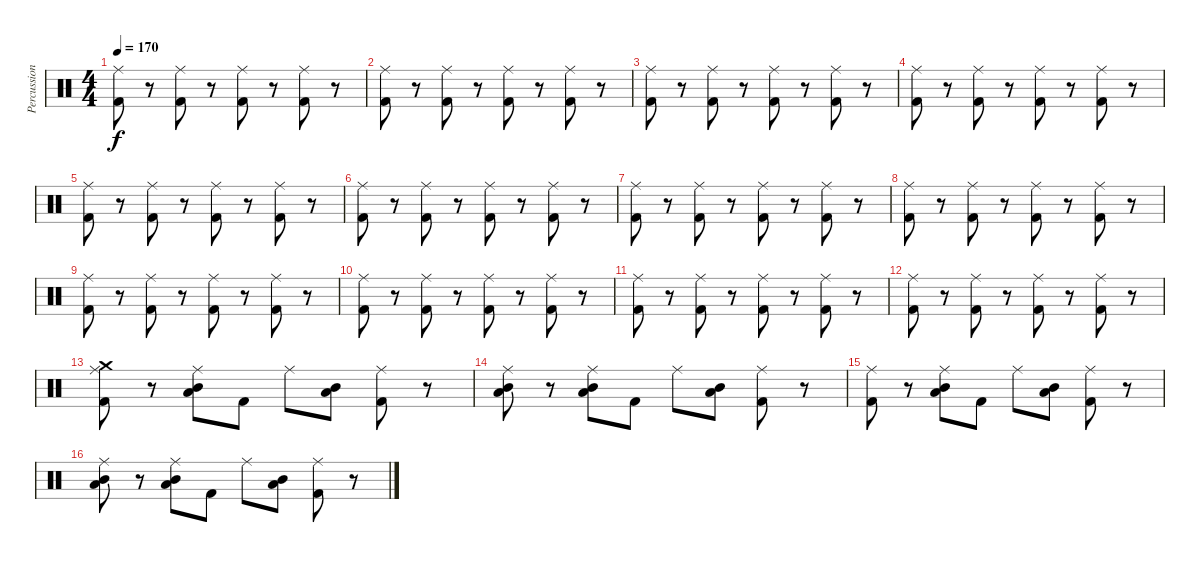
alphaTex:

\track ("Percussion" "Percussion") {instrument percussion}
\staff {score}
\articulation defaults
\ts (4 4)
\tempo 170
\clef neutral
\ks c
("Ride (middle)" "Kick (hit) 2").8{dy f} r.8 ("Ride (middle)" "Kick (hit) 2").8 r.8 ("Ride (middle)" "Kick (hit) 2").8 r.8 ("Ride (middle)" "Kick (hit) 2").8 r.8 |
("Ride (middle)" "Kick (hit) 2").8 r.8 ("Ride (middle)" "Kick (hit) 2").8 r.8 ("Ride (middle)" "Kick (hit) 2").8 r.8 ("Ride (middle)" "Kick (hit) 2").8 r.8 |
("Ride (middle)" "Kick (hit) 2").8 r.8 ("Ride (middle)" "Kick (hit) 2").8 r.8 ("Ride (middle)" "Kick (hit) 2").8 r.8 ("Ride (middle)" "Kick (hit) 2").8 r.8 |
("Ride (middle)" "Kick (hit) 2").8 r.8 ("Ride (middle)" "Kick (hit) 2").8 r.8 ("Ride (middle)" "Kick (hit) 2").8 r.8 ("Ride (middle)" "Kick (hit) 2").8 r.8 |
("Ride (middle)" "Kick (hit) 2").8 r.8 ("Ride (middle)" "Kick (hit) 2").8 r.8 ("Ride (middle)" "Kick (hit) 2").8 r.8 ("Ride (middle)" "Kick (hit) 2").8 r.8 |
("Ride (middle)" "Kick (hit) 2").8 r.8 ("Ride (middle)" "Kick (hit) 2").8 r.8 ("Ride (middle)" "Kick (hit) 2").8 r.8 ("Ride (middle)" "Kick (hit) 2").8 r.8 |
("Ride (middle)" "Kick (hit) 2").8 r.8 ("Ride (middle)" "Kick (hit) 2").8 r.8 ("Ride (middle)" "Kick (hit) 2").8 r.8 ("Ride (middle)" "Kick (hit) 2").8 r.8 |
("Ride (middle)" "Kick (hit) 2").8 r.8 ("Ride (middle)" "Kick (hit) 2").8 r.8 ("Ride (middle)" "Kick (hit) 2").8 r.8 ("Ride (middle)" "Kick (hit) 2").8 r.8 |
("Ride (middle)" "Kick (hit) 2").8 r.8 ("Ride (middle)" "Kick (hit) 2").8 r.8 ("Ride (middle)" "Kick (hit) 2").8 r.8 ("Ride (middle)" "Kick (hit) 2").8 r.8 |
("Ride (middle)" "Kick (hit) 2").8 r.8 ("Ride (middle)" "Kick (hit) 2").8 r.8 ("Ride (middle)" "Kick (hit) 2").8 r.8 ("Ride (middle)" "Kick (hit) 2").8 r.8 |
("Ride (middle)" "Kick (hit) 2").8 r.8 ("Ride (middle)" "Kick (hit) 2").8 r.8 ("Ride (middle)" "Kick (hit) 2").8 r.8 ("Ride (middle)" "Kick (hit) 2").8 r.8 |
("Ride (middle)" "Kick (hit) 2").8 r.8 ("Ride (middle)" "Kick (hit) 2").8 r.8 ("Ride (middle)" "Kick (hit) 2").8 r.8 ("Ride (middle)" "Kick (hit) 2").8 r.8 |
("Ride (middle)" "Kick (hit) 2" "Crash medium (hit)").8 r.8 ("Ride (middle)" "Mid Tom (hit)" "Low Tom (hit)").8 "Kick (hit) 2".8 "Ride (middle)".8 ("Mid Tom (hit)" "Low Tom (hit)").8 ("Ride (middle)" "Kick (hit) 2").8 r.8 |
("Ride (middle)" "Mid Tom (hit)" "Low Tom (hit)").8 r.8 ("Ride (middle)" "Mid Tom (hit)" "Low Tom (hit)").8 "Kick (hit) 2".8 "Ride (middle)".8 ("Mid Tom (hit)" "Low Tom (hit)").8 ("Ride (middle)" "Kick (hit) 2").8 r.8 |
("Ride (middle)" "Kick (hit) 2").8 r.8 ("Ride (middle)" "Mid Tom (hit)" "Low Tom (hit)").8 "Kick (hit) 2".8 "Ride (middle)".8 ("Mid Tom (hit)" "Low Tom (hit)").8 ("Ride (middle)" "Kick (hit) 2").8 r.8 |
("Ride (middle)" "Mid Tom (hit)" "Low Tom (hit)").8 r.8 ("Ride (middle)" "Mid Tom (hit)" "Low Tom (hit)").8 "Kick (hit) 2".8 "Ride (middle)".8 ("Mid Tom (hit)" "Low Tom (hit)").8 ("Ride (middle)" "Kick (hit) 2").8 r.8
